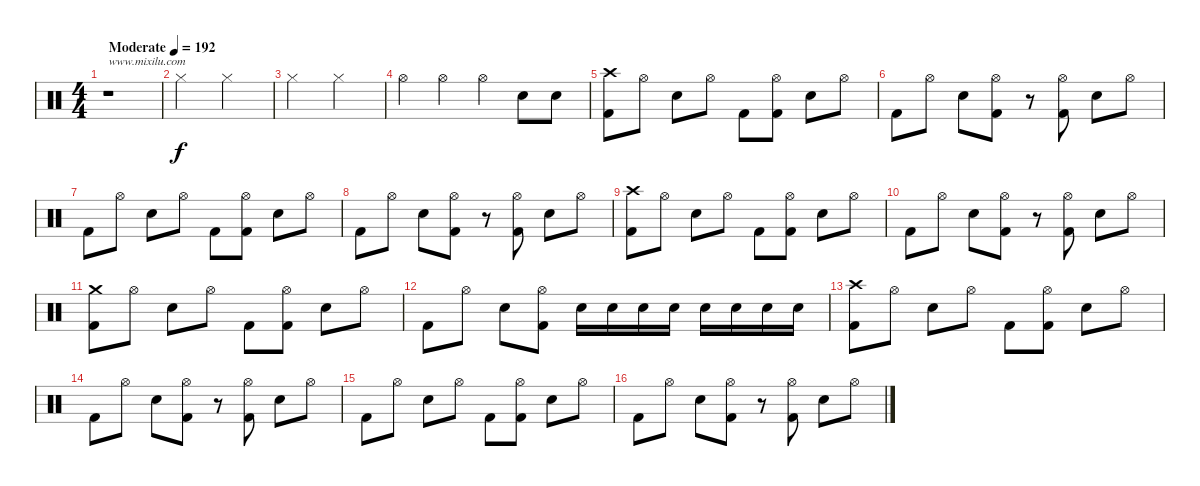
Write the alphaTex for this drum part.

\track "" {instrument percussion}
\staff {score}
\articulation defaults
\ts (4 4)
\tempo (192 "Moderate")
\clef neutral
\ks c
r.1{txt "www.mixilu.com" dy f} |
"Hi-Hat (closed)".2 "Hi-Hat (closed)".2 |
"Hi-Hat (closed)".2 "Hi-Hat (closed)".2 |
"Hi-Hat (open)".4 "Hi-Hat (open)".4 "Hi-Hat (open)".4 "Snare (hit) 2".8 "Snare (hit) 2".8 |
("Crash high (hit)" "Kick (hit) 2").8 "Hi-Hat (open)".8 "Snare (hit) 2".8 "Hi-Hat (open)".8 "Kick (hit) 2".8 ("Hi-Hat (open)" "Kick (hit) 2").8 "Snare (hit) 2".8 "Hi-Hat (open)".8 |
"Kick (hit) 2".8 "Hi-Hat (open)".8 "Snare (hit) 2".8 ("Hi-Hat (open)" "Kick (hit) 2").8 r.8 ("Hi-Hat (open)" "Kick (hit) 2").8 "Snare (hit) 2".8 "Hi-Hat (open)".8 |
"Kick (hit) 2".8 "Hi-Hat (open)".8 "Snare (hit) 2".8 "Hi-Hat (open)".8 "Kick (hit) 2".8 ("Hi-Hat (open)" "Kick (hit) 2").8 "Snare (hit) 2".8 "Hi-Hat (open)".8 |
"Kick (hit) 2".8 "Hi-Hat (open)".8 "Snare (hit) 2".8 ("Hi-Hat (open)" "Kick (hit) 2").8 r.8 ("Hi-Hat (open)" "Kick (hit) 2").8 "Snare (hit) 2".8 "Hi-Hat (open)".8 |
("Crash high (hit)" "Kick (hit) 2").8 "Hi-Hat (open)".8 "Snare (hit) 2".8 "Hi-Hat (open)".8 "Kick (hit) 2".8 ("Hi-Hat (open)" "Kick (hit) 2").8 "Snare (hit) 2".8 "Hi-Hat (open)".8 |
"Kick (hit) 2".8 "Hi-Hat (open)".8 "Snare (hit) 2".8 ("Hi-Hat (open)" "Kick (hit) 2").8 r.8 ("Hi-Hat (open)" "Kick (hit) 2").8 "Snare (hit) 2".8 "Hi-Hat (open)".8 |
("Crash medium (hit)" "Kick (hit) 2").8 "Hi-Hat (open)".8 "Snare (hit) 2".8 "Hi-Hat (open)".8 "Kick (hit) 2".8 ("Hi-Hat (open)" "Kick (hit) 2").8 "Snare (hit) 2".8 "Hi-Hat (open)".8 |
"Kick (hit) 2".8 "Hi-Hat (open)".8 "Snare (hit) 2".8 ("Hi-Hat (open)" "Kick (hit) 2").8 "Electric Snare (hit)".16 "Electric Snare (hit)".16 "Electric Snare (hit)".16 "Electric Snare (hit)".16 "Snare (hit) 2".16 "Snare (hit) 2".16 "Snare (hit) 2".16 "Snare (hit) 2".16 |
("Crash high (hit)" "Kick (hit) 2").8 "Hi-Hat (open)".8 "Snare (hit) 2".8 "Hi-Hat (open)".8 "Kick (hit) 2".8 ("Hi-Hat (open)" "Kick (hit) 2").8 "Snare (hit) 2".8 "Hi-Hat (open)".8 |
"Kick (hit) 2".8 "Hi-Hat (open)".8 "Snare (hit) 2".8 ("Hi-Hat (open)" "Kick (hit) 2").8 r.8 ("Hi-Hat (open)" "Kick (hit) 2").8 "Snare (hit) 2".8 "Hi-Hat (open)".8 |
"Kick (hit) 2".8 "Hi-Hat (open)".8 "Snare (hit) 2".8 "Hi-Hat (open)".8 "Kick (hit) 2".8 ("Hi-Hat (open)" "Kick (hit) 2").8 "Snare (hit) 2".8 "Hi-Hat (open)".8 |
"Kick (hit) 2".8 "Hi-Hat (open)".8 "Snare (hit) 2".8 ("Hi-Hat (open)" "Kick (hit) 2").8 r.8 ("Hi-Hat (open)" "Kick (hit) 2").8 "Snare (hit) 2".8 "Hi-Hat (open)".8
